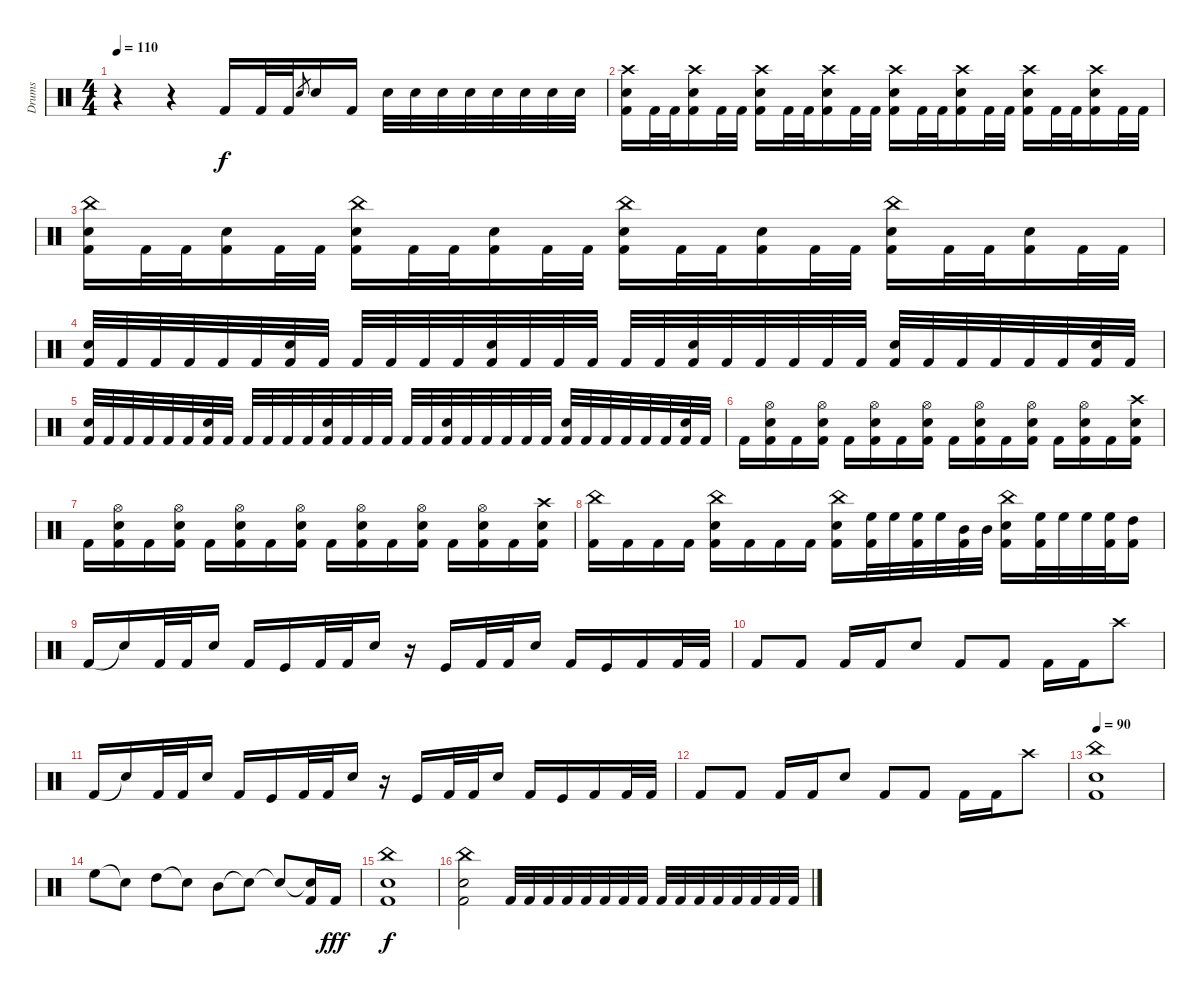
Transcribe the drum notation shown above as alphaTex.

\track ("Drums" "Drums") {instrument percussion}
\staff {score}
\articulation defaults
\ts (4 4)
\tempo 110
\clef neutral
\ks c
r.4{dy f} r.4 "Kick (hit) 2".16 "Kick (hit) 2".32 "Kick (hit) 2".32 "Electric Snare (hit)".8{gr} "Electric Snare (hit)".16 "Kick (hit) 2".16 "Electric Snare (hit)".32 "Electric Snare (hit)".32 "Electric Snare (hit)".32 "Electric Snare (hit)".32 "Electric Snare (hit)".32 "Electric Snare (hit)".32 "Electric Snare (hit)".32 "Electric Snare (hit)".32 |
("Crash high (hit)" "Electric Snare (hit)" "Kick (hit) 2").16 "Kick (hit) 2".32 "Kick (hit) 2".32 ("Crash high (hit)" "Electric Snare (hit)" "Kick (hit) 2").16 "Kick (hit) 2".32 "Kick (hit) 2".32 ("Crash high (hit)" "Electric Snare (hit)" "Kick (hit) 2").16 "Kick (hit) 2".32 "Kick (hit) 2".32 ("Crash high (hit)" "Electric Snare (hit)" "Kick (hit) 2").16 "Kick (hit) 2".32 "Kick (hit) 2".32 ("Crash high (hit)" "Electric Snare (hit)" "Kick (hit) 2").16 "Kick (hit) 2".32 "Kick (hit) 2".32 ("Crash high (hit)" "Electric Snare (hit)" "Kick (hit) 2").16 "Kick (hit) 2".32 "Kick (hit) 2".32 ("Crash high (hit)" "Electric Snare (hit)" "Kick (hit) 2").16 "Kick (hit) 2".32 "Kick (hit) 2".32 ("Crash high (hit)" "Electric Snare (hit)" "Kick (hit) 2").16 "Kick (hit) 2".32 "Kick (hit) 2".32 |
("China (hit)" "Electric Snare (hit)" "Kick (hit) 2").16 "Kick (hit) 2".32 "Kick (hit) 2".32 ("Electric Snare (hit)" "Kick (hit) 2").16 "Kick (hit) 2".32 "Kick (hit) 2".32 ("China (hit)" "Electric Snare (hit)" "Kick (hit) 2").16 "Kick (hit) 2".32 "Kick (hit) 2".32 ("Electric Snare (hit)" "Kick (hit) 2").16 "Kick (hit) 2".32 "Kick (hit) 2".32 ("China (hit)" "Electric Snare (hit)" "Kick (hit) 2").16 "Kick (hit) 2".32 "Kick (hit) 2".32 ("Electric Snare (hit)" "Kick (hit) 2").16 "Kick (hit) 2".32 "Kick (hit) 2".32 ("China (hit)" "Electric Snare (hit)" "Kick (hit) 2").16 "Kick (hit) 2".32 "Kick (hit) 2".32 ("Electric Snare (hit)" "Kick (hit) 2").16 "Kick (hit) 2".32 "Kick (hit) 2".32 |
("Electric Snare (hit)" "Kick (hit) 2").32 "Kick (hit) 2".32 "Kick (hit) 2".32 "Kick (hit) 2".32 "Kick (hit) 2".32 "Kick (hit) 2".32 ("Electric Snare (hit)" "Kick (hit) 2").32 "Kick (hit) 2".32 "Kick (hit) 2".32 "Kick (hit) 2".32 "Kick (hit) 2".32 "Kick (hit) 2".32 ("Electric Snare (hit)" "Kick (hit) 2").32 "Kick (hit) 2".32 "Kick (hit) 2".32 "Kick (hit) 2".32 "Kick (hit) 2".32 "Kick (hit) 2".32 ("Electric Snare (hit)" "Kick (hit) 2").32 "Kick (hit) 2".32 "Kick (hit) 2".32 "Kick (hit) 2".32 "Kick (hit) 2".32 "Kick (hit) 2".32 ("Electric Snare (hit)" "Kick (hit) 2").32 "Kick (hit) 2".32 "Kick (hit) 2".32 "Kick (hit) 2".32 "Kick (hit) 2".32 "Kick (hit) 2".32 ("Electric Snare (hit)" "Kick (hit) 2").32 "Kick (hit) 2".32 |
("Electric Snare (hit)" "Kick (hit) 2").32 "Kick (hit) 2".32 "Kick (hit) 2".32 "Kick (hit) 2".32 "Kick (hit) 2".32 "Kick (hit) 2".32 ("Electric Snare (hit)" "Kick (hit) 2").32 "Kick (hit) 2".32 "Kick (hit) 2".32 "Kick (hit) 2".32 "Kick (hit) 2".32 "Kick (hit) 2".32 ("Electric Snare (hit)" "Kick (hit) 2").32 "Kick (hit) 2".32 "Kick (hit) 2".32 "Kick (hit) 2".32 "Kick (hit) 2".32 "Kick (hit) 2".32 ("Electric Snare (hit)" "Kick (hit) 2").32 "Kick (hit) 2".32 "Kick (hit) 2".32 "Kick (hit) 2".32 "Kick (hit) 2".32 "Kick (hit) 2".32 ("Electric Snare (hit)" "Kick (hit) 2").32 "Kick (hit) 2".32 "Kick (hit) 2".32 "Kick (hit) 2".32 "Kick (hit) 2".32 "Kick (hit) 2".32 ("Electric Snare (hit)" "Kick (hit) 2").32 "Kick (hit) 2".32 |
"Kick (hit) 2".16 ("Hi-Hat (open)" "Electric Snare (hit)" "Kick (hit) 2").16 "Kick (hit) 2".16 ("Hi-Hat (open)" "Electric Snare (hit)" "Kick (hit) 2").16 "Kick (hit) 2".16 ("Hi-Hat (open)" "Electric Snare (hit)" "Kick (hit) 2").16 "Kick (hit) 2".16 ("Hi-Hat (open)" "Electric Snare (hit)" "Kick (hit) 2").16 "Kick (hit) 2".16 ("Hi-Hat (open)" "Electric Snare (hit)" "Kick (hit) 2").16 "Kick (hit) 2".16 ("Hi-Hat (open)" "Electric Snare (hit)" "Kick (hit) 2").16 "Kick (hit) 2".16 ("Hi-Hat (open)" "Electric Snare (hit)" "Kick (hit) 2").16 "Kick (hit) 2".16 ("Crash high (hit)" "Electric Snare (hit)" "Kick (hit) 2").16 |
"Kick (hit) 2".16 ("Hi-Hat (open)" "Electric Snare (hit)" "Kick (hit) 2").16 "Kick (hit) 2".16 ("Hi-Hat (open)" "Electric Snare (hit)" "Kick (hit) 2").16 "Kick (hit) 2".16 ("Hi-Hat (open)" "Electric Snare (hit)" "Kick (hit) 2").16 "Kick (hit) 2".16 ("Hi-Hat (open)" "Electric Snare (hit)" "Kick (hit) 2").16 "Kick (hit) 2".16 ("Hi-Hat (open)" "Electric Snare (hit)" "Kick (hit) 2").16 "Kick (hit) 2".16 ("Hi-Hat (open)" "Electric Snare (hit)" "Kick (hit) 2").16 "Kick (hit) 2".16 ("Hi-Hat (open)" "Electric Snare (hit)" "Kick (hit) 2").16 "Kick (hit) 2".16 ("Crash high (hit)" "Electric Snare (hit)" "Kick (hit) 2").16 |
("China (hit)" "Kick (hit) 2").16 "Kick (hit) 2".16 "Kick (hit) 2".16 "Kick (hit) 2".16 ("China (hit)" "Electric Snare (hit)" "Kick (hit) 2").16 "Kick (hit) 2".16 "Kick (hit) 2".16 "Kick (hit) 2".16 ("China (hit)" "Electric Snare (hit)" "Kick (hit) 2").16 ("High Floor Tom (hit)" "Kick (hit) 2").32 "High Floor Tom (hit)".32 ("High Floor Tom (hit)" "Kick (hit) 2").32 "High Floor Tom (hit)".32 ("Mid Tom (hit)" "Kick (hit) 2").32 "Mid Tom (hit)".32 ("China (hit)" "Electric Snare (hit)" "Kick (hit) 2").16 ("High Floor Tom (hit)" "Kick (hit) 2").32 "High Floor Tom (hit)".32 "High Floor Tom (hit)".32 ("High Floor Tom (hit)" "Kick (hit) 2").32 ("High Tom (hit)" "Kick (hit) 2").16 |
"Kick (hit) 2".16 "Snare (hit)"{t}.16 "Kick (hit) 2".32 "Kick (hit) 2".32 "Electric Snare (hit)".16 "Kick (hit) 2".16 "Kick (hit)".16 "Kick (hit) 2".32 "Kick (hit) 2".32 "Electric Snare (hit)".16 r.16 "Kick (hit)".16 "Kick (hit) 2".32 "Kick (hit) 2".32 "Electric Snare (hit)".16 "Kick (hit) 2".16 "Kick (hit)".16 "Kick (hit) 2".16 "Kick (hit) 2".32 "Kick (hit) 2".32 |
"Kick (hit) 2".8 "Kick (hit) 2".8 "Kick (hit) 2".16 "Kick (hit) 2".16 "Electric Snare (hit)".8 "Kick (hit) 2".8 "Kick (hit) 2".8 "Kick (hit) 2".16 "Kick (hit) 2".16 "Crash high (hit)".8 |
"Kick (hit) 2".16 "Snare (hit)"{t}.16 "Kick (hit) 2".32 "Kick (hit) 2".32 "Electric Snare (hit)".16 "Kick (hit) 2".16 "Kick (hit)".16 "Kick (hit) 2".32 "Kick (hit) 2".32 "Electric Snare (hit)".16 r.16 "Kick (hit)".16 "Kick (hit) 2".32 "Kick (hit) 2".32 "Electric Snare (hit)".16 "Kick (hit) 2".16 "Kick (hit)".16 "Kick (hit) 2".16 "Kick (hit) 2".32 "Kick (hit) 2".32 |
"Kick (hit) 2".8 "Kick (hit) 2".8 "Kick (hit) 2".16 "Kick (hit) 2".16 "Electric Snare (hit)".8 "Kick (hit) 2".8 "Kick (hit) 2".8 "Kick (hit) 2".16 "Kick (hit) 2".16 "Crash high (hit)".8 |
\tempo 90
("China (hit)" "Electric Snare (hit)" "Kick (hit) 2").1 |
"High Floor Tom (hit)".8 "Snare (hit)"{t}.8 "High Tom (hit)".8 "Snare (hit)"{t}.8 "Mid Tom (hit)".8 "Snare (hit)"{t}.8 "Snare (hit)"{t}.8 ("Snare (hit)"{t} "Kick (hit) 2").16 "Kick (hit) 2".16{dy fff} |
("China (hit)" "Electric Snare (hit)" "Kick (hit) 2").1{dy f} |
("China (hit)" "Electric Snare (hit)" "Kick (hit) 2").2 "Kick (hit) 2".32 "Kick (hit) 2".32 "Kick (hit) 2".32 "Kick (hit) 2".32 "Kick (hit) 2".32 "Kick (hit) 2".32 "Kick (hit) 2".32 "Kick (hit) 2".32 "Kick (hit) 2".32 "Kick (hit) 2".32 "Kick (hit) 2".32 "Kick (hit) 2".32 "Kick (hit) 2".32 "Kick (hit) 2".32 "Kick (hit) 2".32 "Kick (hit) 2".32
